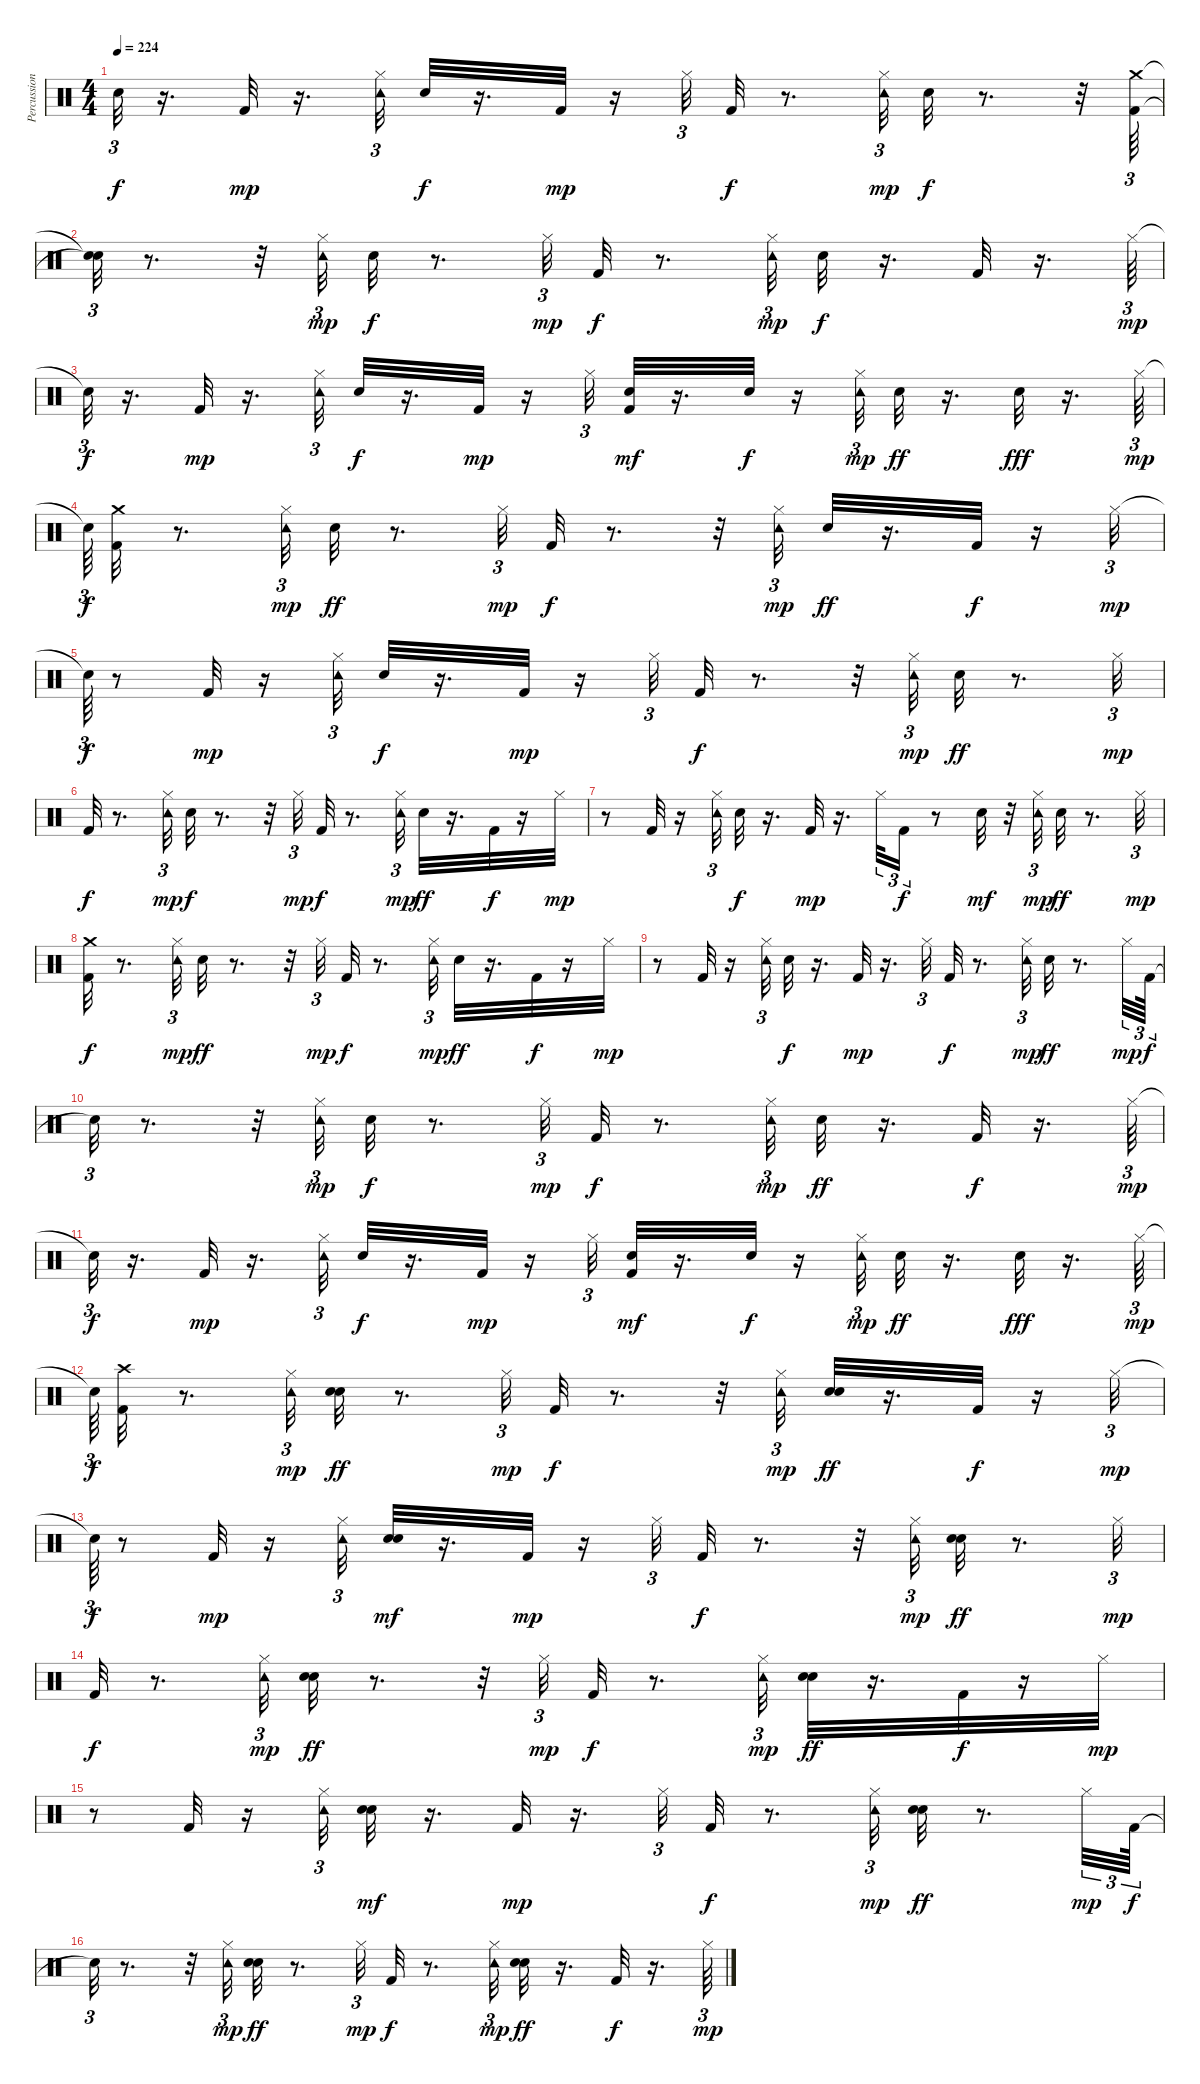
\track ("Percussion" "Percussion") {instrument percussion}
\staff {score}
\articulation defaults
\ts (4 4)
\tempo 224
\clef neutral
\ks c "Snare (hit)"{t}.32{tu (3 2) dy f}
r.16{d} "Kick (hit) 2".32{dy mp} r.16{d} ("Tambourine (hit)" "Hi-Hat (closed)").32{tu (3 2)} "Snare (hit) 2".32{dy f} r.16{d} "Kick (hit) 2".32{dy mp} r.16 "Hi-Hat (closed)".32{tu (3 2)} "Kick (hit) 2".32{dy f} r.8{d} ("Tambourine (hit)" "Hi-Hat (closed)").32{tu (3 2) dy mp} "Snare (hit) 2".32{dy f} r.8{d} r.32 ("Kick (hit) 2" "Crash medium (hit)").64{tu (3 2)} |
("Snare (hit)"{t} "Snare (hit)"{t}).32{tu (3 2)} r.8{d} r.32 ("Tambourine (hit)" "Hi-Hat (closed)").32{tu (3 2) dy mp} "Snare (hit) 2".32{dy f} r.8{d} "Hi-Hat (closed)".32{tu (3 2) dy mp} "Kick (hit) 2".32{dy f} r.8{d} ("Tambourine (hit)" "Hi-Hat (closed)").32{tu (3 2) dy mp} "Snare (hit) 2".32{dy f} r.16{d} "Kick (hit) 2".32 r.16{d} "Hi-Hat (closed)".64{tu (3 2) dy mp} |
"Snare (hit)"{t}.32{tu (3 2) dy f} r.16{d} "Kick (hit) 2".32{dy mp} r.16{d} ("Tambourine (hit)" "Hi-Hat (closed)").32{tu (3 2)} "Snare (hit) 2".32{dy f} r.16{d} "Kick (hit) 2".32{dy mp} r.16 "Hi-Hat (closed)".32{tu (3 2)} ("Kick (hit) 2" "Snare (hit) 2").32{dy mf} r.16{d} "Snare (hit) 2".32{dy f} r.16 ("Tambourine (hit)" "Hi-Hat (closed)").32{tu (3 2) dy mp} "Snare (hit) 2".32{dy ff} r.16{d} "Snare (hit) 2".32{dy fff} r.16{d} "Hi-Hat (closed)".64{tu (3 2) dy mp} |
"Snare (hit)"{t}.64{tu (3 2) dy f} ("Kick (hit) 2" "Crash medium (hit)").32 r.8{d} ("Tambourine (hit)" "Hi-Hat (closed)").32{tu (3 2) dy mp} "Snare (hit) 2".32{dy ff} r.8{d} "Hi-Hat (closed)".32{tu (3 2) dy mp} "Kick (hit) 2".32{dy f} r.8{d} r.32 ("Tambourine (hit)" "Hi-Hat (closed)").32{tu (3 2) dy mp} "Snare (hit) 2".32{dy ff} r.16{d} "Kick (hit) 2".32{dy f} r.16 "Hi-Hat (closed)".32{tu (3 2) dy mp} |
"Snare (hit)"{t}.64{tu (3 2) dy f} r.8 "Kick (hit) 2".32{dy mp} r.16 ("Tambourine (hit)" "Hi-Hat (closed)").32{tu (3 2)} "Snare (hit) 2".32{dy f} r.16{d} "Kick (hit) 2".32{dy mp} r.16 "Hi-Hat (closed)".32{tu (3 2)} "Kick (hit) 2".32{dy f} r.8{d} r.32 ("Tambourine (hit)" "Hi-Hat (closed)").32{tu (3 2) dy mp} "Snare (hit) 2".32{dy ff} r.8{d} "Hi-Hat (closed)".32{tu (3 2) dy mp} |
"Kick (hit) 2".32{dy f} r.8{d} ("Tambourine (hit)" "Hi-Hat (closed)").32{tu (3 2) dy mp} "Snare (hit) 2".32{dy f} r.8{d} r.32 "Hi-Hat (closed)".32{tu (3 2) dy mp} "Kick (hit) 2".32{dy f} r.8{d} ("Tambourine (hit)" "Hi-Hat (closed)").32{tu (3 2) dy mp} "Snare (hit) 2".32{dy ff} r.16{d} "Kick (hit) 2".32{dy f} r.16 "Hi-Hat (closed)".32{dy mp} |
r.8 "Kick (hit) 2".32 r.16 ("Tambourine (hit)" "Hi-Hat (closed)").32{tu (3 2)} "Snare (hit) 2".32{dy f} r.16{d} "Kick (hit) 2".32{dy mp} r.16{d} "Hi-Hat (closed)".32{tu (3 2)} "Kick (hit) 2".16{tu (3 2) dy f} r.8 "Snare (hit) 2".32{dy mf} r.32 ("Tambourine (hit)" "Hi-Hat (closed)").32{tu (3 2) dy mp} "Snare (hit) 2".32{dy ff} r.8{d} "Hi-Hat (closed)".32{tu (3 2) dy mp} |
("Kick (hit) 2" "Crash medium (hit)").32{dy f} r.8{d} ("Tambourine (hit)" "Hi-Hat (closed)").32{tu (3 2) dy mp} "Snare (hit) 2".32{dy ff} r.8{d} r.32 "Hi-Hat (closed)".32{tu (3 2) dy mp} "Kick (hit) 2".32{dy f} r.8{d} ("Tambourine (hit)" "Hi-Hat (closed)").32{tu (3 2) dy mp} "Snare (hit) 2".32{dy ff} r.16{d} "Kick (hit) 2".32{dy f} r.16 "Hi-Hat (closed)".32{dy mp} |
r.8 "Kick (hit) 2".32 r.16 ("Tambourine (hit)" "Hi-Hat (closed)").32{tu (3 2)} "Snare (hit) 2".32{dy f} r.16{d} "Kick (hit) 2".32{dy mp} r.16{d} "Hi-Hat (closed)".32{tu (3 2)} "Kick (hit) 2".32{dy f} r.8{d} ("Tambourine (hit)" "Hi-Hat (closed)").32{tu (3 2) dy mp} "Snare (hit) 2".32{dy ff} r.8{d} "Hi-Hat (closed)".32{tu (3 2) dy mp} "Kick (hit) 2".64{tu (3 2) dy f} |
"Snare (hit)"{t}.32{tu (3 2)} r.8{d} r.32 ("Tambourine (hit)" "Hi-Hat (closed)").32{tu (3 2) dy mp} "Snare (hit) 2".32{dy f} r.8{d} "Hi-Hat (closed)".32{tu (3 2) dy mp} "Kick (hit) 2".32{dy f} r.8{d} ("Tambourine (hit)" "Hi-Hat (closed)").32{tu (3 2) dy mp} "Snare (hit) 2".32{dy ff} r.16{d} "Kick (hit) 2".32{dy f} r.16{d} "Hi-Hat (closed)".64{tu (3 2) dy mp} |
"Snare (hit)"{t}.32{tu (3 2) dy f} r.16{d} "Kick (hit) 2".32{dy mp} r.16{d} ("Tambourine (hit)" "Hi-Hat (closed)").32{tu (3 2)} "Snare (hit) 2".32{dy f} r.16{d} "Kick (hit) 2".32{dy mp} r.16 "Hi-Hat (closed)".32{tu (3 2)} ("Kick (hit) 2" "Snare (hit) 2").32{dy mf} r.16{d} "Snare (hit) 2".32{dy f} r.16 ("Tambourine (hit)" "Hi-Hat (closed)").32{tu (3 2) dy mp} "Snare (hit) 2".32{dy ff} r.16{d} "Snare (hit) 2".32{dy fff} r.16{d} "Hi-Hat (closed)".64{tu (3 2) dy mp} |
"Snare (hit)"{t}.64{tu (3 2) dy f} ("Kick (hit) 2" "Crash high (hit)").32 r.8{d} ("Tambourine (hit)" "Hi-Hat (closed)").32{tu (3 2) dy mp} ("Hand Clap (hit)" "Snare (hit) 2").32{dy ff} r.8{d} "Hi-Hat (closed)".32{tu (3 2) dy mp} "Kick (hit) 2".32{dy f} r.8{d} r.32 ("Tambourine (hit)" "Hi-Hat (closed)").32{tu (3 2) dy mp} ("Hand Clap (hit)" "Snare (hit) 2").32{dy ff} r.16{d} "Kick (hit) 2".32{dy f} r.16 "Hi-Hat (closed)".32{tu (3 2) dy mp} |
"Snare (hit)"{t}.64{tu (3 2) dy f} r.8 "Kick (hit) 2".32{dy mp} r.16 ("Tambourine (hit)" "Hi-Hat (closed)").32{tu (3 2)} ("Hand Clap (hit)" "Snare (hit) 2").32{dy mf} r.16{d} "Kick (hit) 2".32{dy mp} r.16 "Hi-Hat (closed)".32{tu (3 2)} "Kick (hit) 2".32{dy f} r.8{d} r.32 ("Tambourine (hit)" "Hi-Hat (closed)").32{tu (3 2) dy mp} ("Hand Clap (hit)" "Snare (hit) 2").32{dy ff} r.8{d} "Hi-Hat (closed)".32{tu (3 2) dy mp} |
"Kick (hit) 2".32{dy f} r.8{d} ("Tambourine (hit)" "Hi-Hat (closed)").32{tu (3 2) dy mp} ("Hand Clap (hit)" "Snare (hit) 2").32{dy ff} r.8{d} r.32 "Hi-Hat (closed)".32{tu (3 2) dy mp} "Kick (hit) 2".32{dy f} r.8{d} ("Tambourine (hit)" "Hi-Hat (closed)").32{tu (3 2) dy mp} ("Hand Clap (hit)" "Snare (hit) 2").32{dy ff} r.16{d} "Kick (hit) 2".32{dy f} r.16 "Hi-Hat (closed)".32{dy mp} |
r.8 "Kick (hit) 2".32 r.16 ("Tambourine (hit)" "Hi-Hat (closed)").32{tu (3 2)} ("Hand Clap (hit)" "Snare (hit) 2").32{dy mf} r.16{d} "Kick (hit) 2".32{dy mp} r.16{d} "Hi-Hat (closed)".32{tu (3 2)} "Kick (hit) 2".32{dy f} r.8{d} ("Tambourine (hit)" "Hi-Hat (closed)").32{tu (3 2) dy mp} ("Hand Clap (hit)" "Snare (hit) 2").32{dy ff} r.8{d} "Hi-Hat (closed)".32{tu (3 2) dy mp} "Kick (hit) 2".64{tu (3 2) dy f} |
"Snare (hit)"{t}.32{tu (3 2)} r.8{d} r.32 ("Tambourine (hit)" "Hi-Hat (closed)").32{tu (3 2) dy mp} ("Hand Clap (hit)" "Snare (hit) 2").32{dy ff} r.8{d} "Hi-Hat (closed)".32{tu (3 2) dy mp} "Kick (hit) 2".32{dy f} r.8{d} ("Tambourine (hit)" "Hi-Hat (closed)").32{tu (3 2) dy mp} ("Hand Clap (hit)" "Snare (hit) 2").32{dy ff} r.16{d} "Kick (hit) 2".32{dy f} r.16{d} "Hi-Hat (closed)".64{tu (3 2) dy mp}
